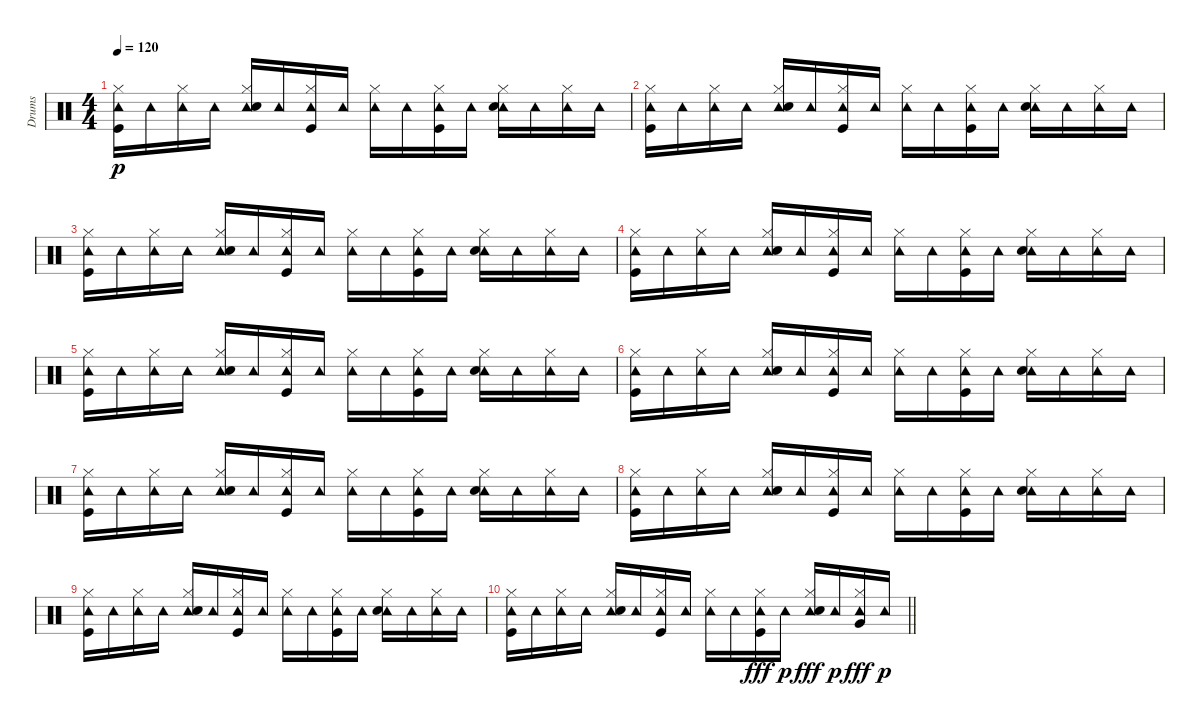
\track ("Drums" "Drums") {instrument percussion}
\staff {score}
\articulation defaults
\ts (4 4)
\tempo 120
\clef neutral
\ks c
("Tambourine (hit)" "Hi-Hat (closed)" "Kick (hit)").16{dy p} "Tambourine (hit)".16 ("Tambourine (hit)" "Hi-Hat (closed)").16 "Tambourine (hit)".16 ("Tambourine (hit)" "Hi-Hat (closed)" "Snare (hit) 2").16 "Tambourine (hit)".16 ("Tambourine (hit)" "Hi-Hat (closed)" "Kick (hit)").16 "Tambourine (hit)".16 ("Tambourine (hit)" "Hi-Hat (closed)").16 "Tambourine (hit)".16 ("Tambourine (hit)" "Hi-Hat (closed)" "Kick (hit)").16 "Tambourine (hit)".16 ("Tambourine (hit)" "Hi-Hat (closed)" "Snare (hit) 2").16 "Tambourine (hit)".16 ("Tambourine (hit)" "Hi-Hat (closed)").16 "Tambourine (hit)".16 |
("Tambourine (hit)" "Hi-Hat (closed)" "Kick (hit)").16 "Tambourine (hit)".16 ("Tambourine (hit)" "Hi-Hat (closed)").16 "Tambourine (hit)".16 ("Tambourine (hit)" "Hi-Hat (closed)" "Snare (hit) 2").16 "Tambourine (hit)".16 ("Tambourine (hit)" "Hi-Hat (closed)" "Kick (hit)").16 "Tambourine (hit)".16 ("Tambourine (hit)" "Hi-Hat (closed)").16 "Tambourine (hit)".16 ("Tambourine (hit)" "Hi-Hat (closed)" "Kick (hit)").16 "Tambourine (hit)".16 ("Tambourine (hit)" "Hi-Hat (closed)" "Snare (hit) 2").16 "Tambourine (hit)".16 ("Tambourine (hit)" "Hi-Hat (closed)").16 "Tambourine (hit)".16 |
("Tambourine (hit)" "Hi-Hat (closed)" "Kick (hit)").16 "Tambourine (hit)".16 ("Tambourine (hit)" "Hi-Hat (closed)").16 "Tambourine (hit)".16 ("Tambourine (hit)" "Hi-Hat (closed)" "Snare (hit) 2").16 "Tambourine (hit)".16 ("Tambourine (hit)" "Hi-Hat (closed)" "Kick (hit)").16 "Tambourine (hit)".16 ("Tambourine (hit)" "Hi-Hat (closed)").16 "Tambourine (hit)".16 ("Tambourine (hit)" "Hi-Hat (closed)" "Kick (hit)").16 "Tambourine (hit)".16 ("Tambourine (hit)" "Hi-Hat (closed)" "Snare (hit) 2").16 "Tambourine (hit)".16 ("Tambourine (hit)" "Hi-Hat (closed)").16 "Tambourine (hit)".16 |
("Tambourine (hit)" "Hi-Hat (closed)" "Kick (hit)").16 "Tambourine (hit)".16 ("Tambourine (hit)" "Hi-Hat (closed)").16 "Tambourine (hit)".16 ("Tambourine (hit)" "Hi-Hat (closed)" "Snare (hit) 2").16 "Tambourine (hit)".16 ("Tambourine (hit)" "Hi-Hat (closed)" "Kick (hit)").16 "Tambourine (hit)".16 ("Tambourine (hit)" "Hi-Hat (closed)").16 "Tambourine (hit)".16 ("Tambourine (hit)" "Hi-Hat (closed)" "Kick (hit)").16 "Tambourine (hit)".16 ("Tambourine (hit)" "Hi-Hat (closed)" "Snare (hit) 2").16 "Tambourine (hit)".16 ("Tambourine (hit)" "Hi-Hat (closed)").16 "Tambourine (hit)".16 |
("Tambourine (hit)" "Hi-Hat (closed)" "Kick (hit)").16 "Tambourine (hit)".16 ("Tambourine (hit)" "Hi-Hat (closed)").16 "Tambourine (hit)".16 ("Tambourine (hit)" "Hi-Hat (closed)" "Snare (hit) 2").16 "Tambourine (hit)".16 ("Tambourine (hit)" "Hi-Hat (closed)" "Kick (hit)").16 "Tambourine (hit)".16 ("Tambourine (hit)" "Hi-Hat (closed)").16 "Tambourine (hit)".16 ("Tambourine (hit)" "Hi-Hat (closed)" "Kick (hit)").16 "Tambourine (hit)".16 ("Tambourine (hit)" "Hi-Hat (closed)" "Snare (hit) 2").16 "Tambourine (hit)".16 ("Tambourine (hit)" "Hi-Hat (closed)").16 "Tambourine (hit)".16 |
("Tambourine (hit)" "Hi-Hat (closed)" "Kick (hit)").16 "Tambourine (hit)".16 ("Tambourine (hit)" "Hi-Hat (closed)").16 "Tambourine (hit)".16 ("Tambourine (hit)" "Hi-Hat (closed)" "Snare (hit) 2").16 "Tambourine (hit)".16 ("Tambourine (hit)" "Hi-Hat (closed)" "Kick (hit)").16 "Tambourine (hit)".16 ("Tambourine (hit)" "Hi-Hat (closed)").16 "Tambourine (hit)".16 ("Tambourine (hit)" "Hi-Hat (closed)" "Kick (hit)").16 "Tambourine (hit)".16 ("Tambourine (hit)" "Hi-Hat (closed)" "Snare (hit) 2").16 "Tambourine (hit)".16 ("Tambourine (hit)" "Hi-Hat (closed)").16 "Tambourine (hit)".16 |
("Tambourine (hit)" "Hi-Hat (closed)" "Kick (hit)").16 "Tambourine (hit)".16 ("Tambourine (hit)" "Hi-Hat (closed)").16 "Tambourine (hit)".16 ("Tambourine (hit)" "Hi-Hat (closed)" "Snare (hit) 2").16 "Tambourine (hit)".16 ("Tambourine (hit)" "Hi-Hat (closed)" "Kick (hit)").16 "Tambourine (hit)".16 ("Tambourine (hit)" "Hi-Hat (closed)").16 "Tambourine (hit)".16 ("Tambourine (hit)" "Hi-Hat (closed)" "Kick (hit)").16 "Tambourine (hit)".16 ("Tambourine (hit)" "Hi-Hat (closed)" "Snare (hit) 2").16 "Tambourine (hit)".16 ("Tambourine (hit)" "Hi-Hat (closed)").16 "Tambourine (hit)".16 |
("Tambourine (hit)" "Hi-Hat (closed)" "Kick (hit)").16 "Tambourine (hit)".16 ("Tambourine (hit)" "Hi-Hat (closed)").16 "Tambourine (hit)".16 ("Tambourine (hit)" "Hi-Hat (closed)" "Snare (hit) 2").16 "Tambourine (hit)".16 ("Tambourine (hit)" "Hi-Hat (closed)" "Kick (hit)").16 "Tambourine (hit)".16 ("Tambourine (hit)" "Hi-Hat (closed)").16 "Tambourine (hit)".16 ("Tambourine (hit)" "Hi-Hat (closed)" "Kick (hit)").16 "Tambourine (hit)".16 ("Tambourine (hit)" "Hi-Hat (closed)" "Snare (hit) 2").16 "Tambourine (hit)".16 ("Tambourine (hit)" "Hi-Hat (closed)").16 "Tambourine (hit)".16 |
("Tambourine (hit)" "Hi-Hat (closed)" "Kick (hit)").16 "Tambourine (hit)".16 ("Tambourine (hit)" "Hi-Hat (closed)").16 "Tambourine (hit)".16 ("Tambourine (hit)" "Hi-Hat (closed)" "Snare (hit) 2").16 "Tambourine (hit)".16 ("Tambourine (hit)" "Hi-Hat (closed)" "Kick (hit)").16 "Tambourine (hit)".16 ("Tambourine (hit)" "Hi-Hat (closed)").16 "Tambourine (hit)".16 ("Tambourine (hit)" "Hi-Hat (closed)" "Kick (hit)").16 "Tambourine (hit)".16 ("Tambourine (hit)" "Hi-Hat (closed)" "Snare (hit) 2").16 "Tambourine (hit)".16 ("Tambourine (hit)" "Hi-Hat (closed)").16 "Tambourine (hit)".16 |
\barLineRight lightlight
("Tambourine (hit)" "Hi-Hat (closed)" "Kick (hit)").16 "Tambourine (hit)".16 ("Tambourine (hit)" "Hi-Hat (closed)").16 "Tambourine (hit)".16 ("Tambourine (hit)" "Hi-Hat (closed)" "Snare (hit) 2").16 "Tambourine (hit)".16 ("Tambourine (hit)" "Hi-Hat (closed)" "Kick (hit)").16 "Tambourine (hit)".16 ("Tambourine (hit)" "Hi-Hat (closed)").16 "Tambourine (hit)".16 ("Tambourine (hit)" "Hi-Hat (closed)" "Kick (hit)").16{dy fff} "Tambourine (hit)".16{dy p} ("Tambourine (hit)" "Hi-Hat (closed)" "Snare (hit) 2").16{dy fff} "Tambourine (hit)".16{dy p} ("Tambourine (hit)" "Hi-Hat (closed)" "Very Low Tom (hit)").16{dy fff} "Tambourine (hit)".16{dy p}
